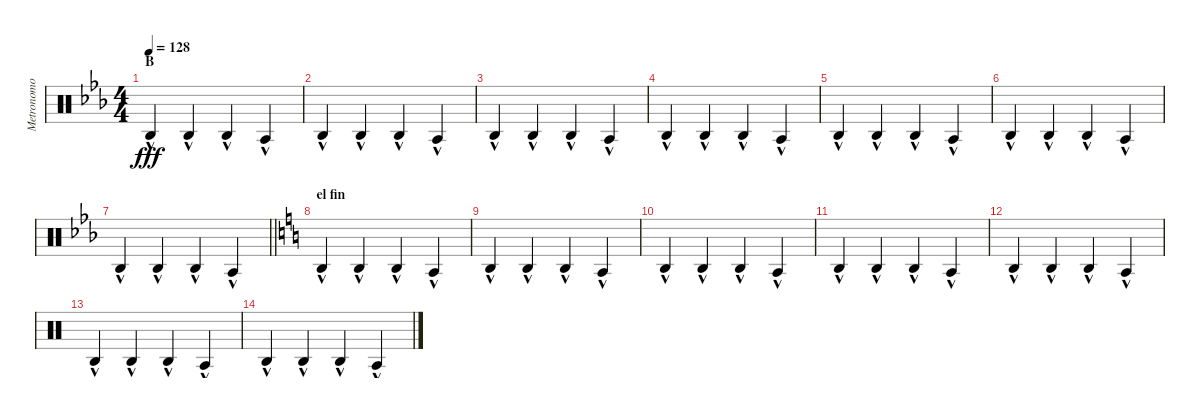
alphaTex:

\track ("Metronomo" "Metronomo") {mute instrument percussion}
\staff {score}
\articulation defaults
\ts (4 4)
\section ("" "B")
\tempo 128
\clef neutral
\ks eb "Agogo high (hit)"{hac}.4{dy fff} "Agogo high (hit)"{hac}.4 "Agogo high (hit)"{hac}.4 "Agogo tow (hit)"{hac}.4
|
"Agogo high (hit)"{hac}.4 "Agogo high (hit)"{hac}.4 "Agogo high (hit)"{hac}.4 "Agogo tow (hit)"{hac}.4 |
"Agogo high (hit)"{hac}.4 "Agogo high (hit)"{hac}.4 "Agogo high (hit)"{hac}.4 "Agogo tow (hit)"{hac}.4 |
"Agogo high (hit)"{hac}.4 "Agogo high (hit)"{hac}.4 "Agogo high (hit)"{hac}.4 "Agogo tow (hit)"{hac}.4 |
"Agogo high (hit)"{hac}.4 "Agogo high (hit)"{hac}.4 "Agogo high (hit)"{hac}.4 "Agogo tow (hit)"{hac}.4 |
"Agogo high (hit)"{hac}.4 "Agogo high (hit)"{hac}.4 "Agogo high (hit)"{hac}.4 "Agogo tow (hit)"{hac}.4 |
\barLineRight lightlight "Agogo high (hit)"{hac}.4 "Agogo high (hit)"{hac}.4 "Agogo high (hit)"{hac}.4 "Agogo tow (hit)"{hac}.4
|
\section ("" "el fin")
\ks c "Agogo high (hit)"{hac}.4 "Agogo high (hit)"{hac}.4 "Agogo high (hit)"{hac}.4 "Agogo tow (hit)"{hac}.4
|
"Agogo high (hit)"{hac}.4 "Agogo high (hit)"{hac}.4 "Agogo high (hit)"{hac}.4 "Agogo tow (hit)"{hac}.4 |
"Agogo high (hit)"{hac}.4 "Agogo high (hit)"{hac}.4 "Agogo high (hit)"{hac}.4 "Agogo tow (hit)"{hac}.4 |
"Agogo high (hit)"{hac}.4 "Agogo high (hit)"{hac}.4 "Agogo high (hit)"{hac}.4 "Agogo tow (hit)"{hac}.4 |
"Agogo high (hit)"{hac}.4 "Agogo high (hit)"{hac}.4 "Agogo high (hit)"{hac}.4 "Agogo tow (hit)"{hac}.4 |
"Agogo high (hit)"{hac}.4 "Agogo high (hit)"{hac}.4 "Agogo high (hit)"{hac}.4 "Agogo tow (hit)"{hac}.4 |
"Agogo high (hit)"{hac}.4 "Agogo high (hit)"{hac}.4 "Agogo high (hit)"{hac}.4 "Agogo tow (hit)"{hac}.4
